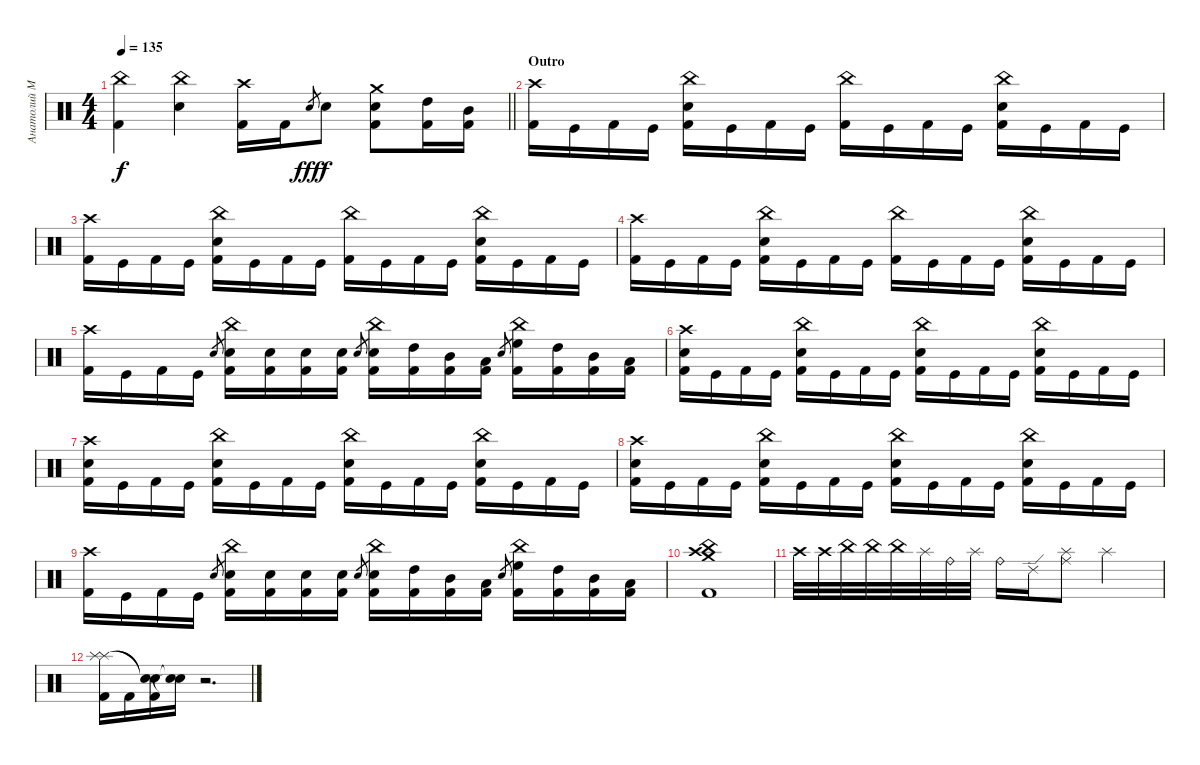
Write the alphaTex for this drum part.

\track ("Анатолий Малиновский" "Анатолий М") {instrument percussion}
\staff {score}
\articulation defaults
\ts (4 4)
\tempo 135
\clef neutral
\barLineRight lightlight
\ks c
("China (hit)" "Kick (hit) 2").4{dy f} ("China (hit)" "Electric Snare (hit)").4 ("Crash high (hit)" "Kick (hit) 2").16 "Kick (hit) 2".16 "Electric Snare (hit)".8{gr dy fff} "Electric Snare (hit)".8{dy f} ("Crash medium (hit)" "Electric Snare (hit)" "Kick (hit) 2").8 ("High Tom (hit)" "Kick (hit) 2").16 ("Mid Tom (hit)" "Kick (hit) 2").16 |
\section ("" "Outro")
("Crash high (hit)" "Kick (hit) 2").16 "Kick (hit)".16 "Kick (hit) 2".16 "Kick (hit)".16 ("China (hit)" "Electric Snare (hit)" "Kick (hit) 2").16 "Kick (hit)".16 "Kick (hit) 2".16 "Kick (hit)".16 ("China (hit)" "Kick (hit) 2").16 "Kick (hit)".16 "Kick (hit) 2".16 "Kick (hit)".16 ("China (hit)" "Electric Snare (hit)" "Kick (hit) 2").16 "Kick (hit)".16 "Kick (hit) 2".16 "Kick (hit)".16 |
("Crash high (hit)" "Kick (hit) 2").16 "Kick (hit)".16 "Kick (hit) 2".16 "Kick (hit)".16 ("China (hit)" "Electric Snare (hit)" "Kick (hit) 2").16 "Kick (hit)".16 "Kick (hit) 2".16 "Kick (hit)".16 ("China (hit)" "Kick (hit) 2").16 "Kick (hit)".16 "Kick (hit) 2".16 "Kick (hit)".16 ("China (hit)" "Electric Snare (hit)" "Kick (hit) 2").16 "Kick (hit)".16 "Kick (hit) 2".16 "Kick (hit)".16 |
("Crash high (hit)" "Kick (hit) 2").16 "Kick (hit)".16 "Kick (hit) 2".16 "Kick (hit)".16 ("China (hit)" "Electric Snare (hit)" "Kick (hit) 2").16 "Kick (hit)".16 "Kick (hit) 2".16 "Kick (hit)".16 ("China (hit)" "Kick (hit) 2").16 "Kick (hit)".16 "Kick (hit) 2".16 "Kick (hit)".16 ("China (hit)" "Electric Snare (hit)" "Kick (hit) 2").16 "Kick (hit)".16 "Kick (hit) 2".16 "Kick (hit)".16 |
("Crash high (hit)" "Kick (hit) 2").16 "Kick (hit)".16 "Kick (hit) 2".16 "Kick (hit)".16 "Electric Snare (hit)".8{gr} ("China (hit)" "Electric Snare (hit)" "Kick (hit) 2").16 ("Electric Snare (hit)" "Kick (hit) 2").16 ("Electric Snare (hit)" "Kick (hit) 2").16 ("Electric Snare (hit)" "Kick (hit) 2").16 "Electric Snare (hit)".8{gr} ("China (hit)" "Electric Snare (hit)" "Kick (hit) 2").16 ("High Tom (hit)" "Kick (hit) 2").16 ("Mid Tom (hit)" "Kick (hit) 2").16 ("Low Tom (hit)" "Kick (hit) 2").16 "Electric Snare (hit)".8{gr} ("China (hit)" "High Floor Tom (hit)" "Kick (hit) 2").16 ("High Tom (hit)" "Kick (hit) 2").16 ("Mid Tom (hit)" "Kick (hit) 2").16 ("Low Tom (hit)" "Kick (hit) 2").16 |
("Crash high (hit)" "Electric Snare (hit)" "Kick (hit) 2").16 "Kick (hit)".16 "Kick (hit) 2".16 "Kick (hit)".16 ("China (hit)" "Electric Snare (hit)" "Kick (hit) 2").16 "Kick (hit)".16 "Kick (hit) 2".16 "Kick (hit)".16 ("China (hit)" "Electric Snare (hit)" "Kick (hit) 2").16 "Kick (hit)".16 "Kick (hit) 2".16 "Kick (hit)".16 ("China (hit)" "Electric Snare (hit)" "Kick (hit) 2").16 "Kick (hit)".16 "Kick (hit) 2".16 "Kick (hit)".16 |
("Crash high (hit)" "Electric Snare (hit)" "Kick (hit) 2").16 "Kick (hit)".16 "Kick (hit) 2".16 "Kick (hit)".16 ("China (hit)" "Electric Snare (hit)" "Kick (hit) 2").16 "Kick (hit)".16 "Kick (hit) 2".16 "Kick (hit)".16 ("China (hit)" "Electric Snare (hit)" "Kick (hit) 2").16 "Kick (hit)".16 "Kick (hit) 2".16 "Kick (hit)".16 ("China (hit)" "Electric Snare (hit)" "Kick (hit) 2").16 "Kick (hit)".16 "Kick (hit) 2".16 "Kick (hit)".16 |
("Crash high (hit)" "Electric Snare (hit)" "Kick (hit) 2").16 "Kick (hit)".16 "Kick (hit) 2".16 "Kick (hit)".16 ("China (hit)" "Electric Snare (hit)" "Kick (hit) 2").16 "Kick (hit)".16 "Kick (hit) 2".16 "Kick (hit)".16 ("China (hit)" "Electric Snare (hit)" "Kick (hit) 2").16 "Kick (hit)".16 "Kick (hit) 2".16 "Kick (hit)".16 ("China (hit)" "Electric Snare (hit)" "Kick (hit) 2").16 "Kick (hit)".16 "Kick (hit) 2".16 "Kick (hit)".16 |
("Crash high (hit)" "Kick (hit) 2").16 "Kick (hit)".16 "Kick (hit) 2".16 "Kick (hit)".16 "Electric Snare (hit)".8{gr} ("China (hit)" "Electric Snare (hit)" "Kick (hit) 2").16 ("Electric Snare (hit)" "Kick (hit) 2").16 ("Electric Snare (hit)" "Kick (hit) 2").16 ("Electric Snare (hit)" "Kick (hit) 2").16 "Electric Snare (hit)".8{gr} ("China (hit)" "Electric Snare (hit)" "Kick (hit) 2").16 ("High Tom (hit)" "Kick (hit) 2").16 ("Mid Tom (hit)" "Kick (hit) 2").16 ("Low Tom (hit)" "Kick (hit) 2").16 "Electric Snare (hit)".8{gr} ("China (hit)" "High Floor Tom (hit)" "Kick (hit) 2").16 ("High Tom (hit)" "Kick (hit) 2").16 ("Mid Tom (hit)" "Kick (hit) 2").16 ("Low Tom (hit)" "Kick (hit) 2").16 |
("Crash high (hit)" "Crash medium (hit)" "China (hit)" "Kick (hit) 2").1 |
"Crash high (hit)".32 "Crash high (hit)".32 "China (hit)".32 "China (hit)".32 "China (hit)".32 "Splash (hit)".32 "Ride (bell)".32 "Splash (hit)".32 "Ride (bell)".16 "Ride (edge) 2".16 ("Ride (middle)" "Splash (hit)").8 "Splash (hit)".2 |
("Kick (hit) 2" "Splash (hit)" "Splash (hit)").16 "Kick (hit) 2".16 ("Kick (hit) 2" "Snare (hit)"{t} "Snare (hit)"{t}).16 ("Snare (hit)"{t} "Snare (hit)"{t}).16 r.2{d}
